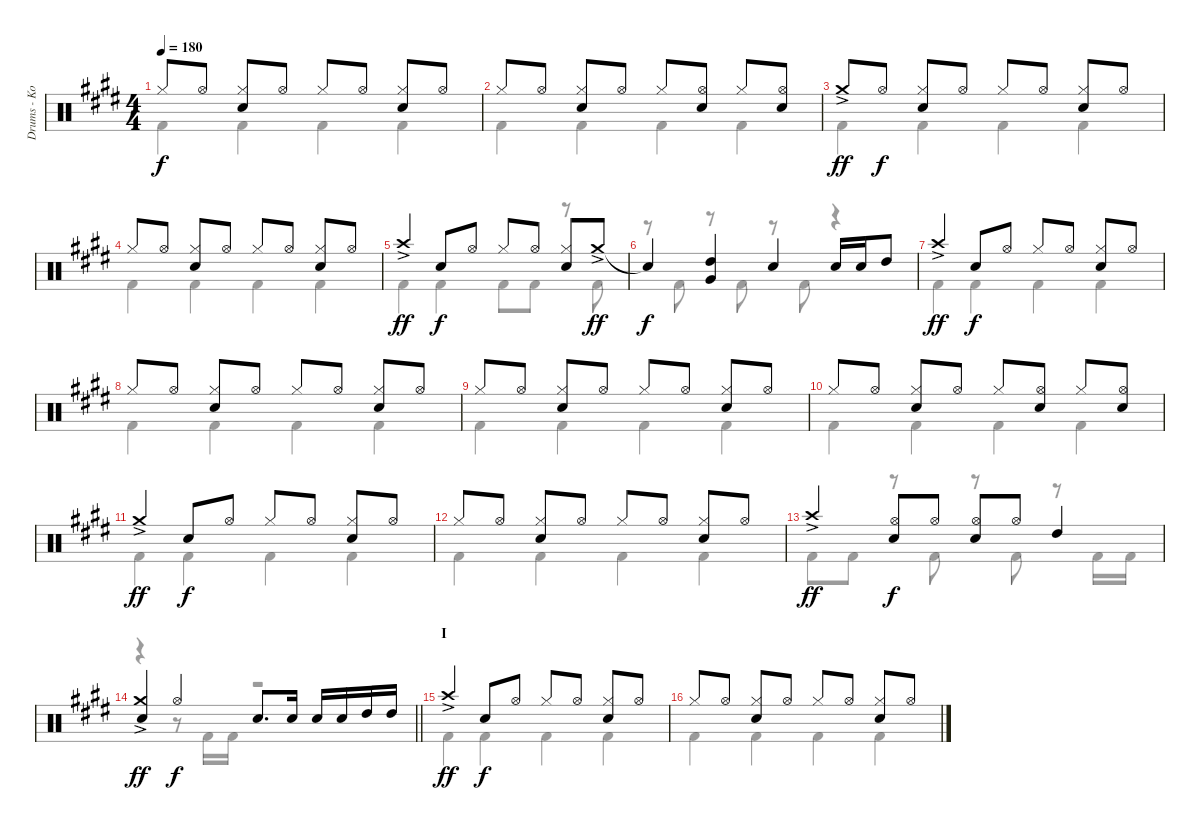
\track ("Drums - Ko-Ki" "Drums - Ko") {instrument percussion}
\staff {score}
\articulation defaults
\voice
\ts (4 4)
\tempo 180
\clef neutral
\ks e "Hi-Hat (closed)".8{dy f} "Hi-Hat (open)".8
("Hi-Hat (closed)" "Snare (hit) 2").8 "Hi-Hat (open)".8 "Hi-Hat (closed)".8 "Hi-Hat (open)".8 ("Hi-Hat (closed)" "Snare (hit) 2").8 "Hi-Hat (open)".8 |
"Hi-Hat (closed)".8 "Hi-Hat (open)".8 ("Hi-Hat (closed)" "Snare (hit) 2").8 "Hi-Hat (open)".8 "Hi-Hat (closed)".8 ("Hi-Hat (open)" "Snare (hit) 2").8 "Hi-Hat (closed)".8 ("Hi-Hat (open)" "Snare (hit) 2").8 |
"Crash medium (hit)"{ac}.8{dy ff} "Hi-Hat (open)".8{dy f} ("Hi-Hat (closed)" "Snare (hit) 2").8 "Hi-Hat (open)".8 "Hi-Hat (closed)".8 "Hi-Hat (open)".8 ("Hi-Hat (closed)" "Snare (hit) 2").8 "Hi-Hat (open)".8 |
"Hi-Hat (closed)".8 "Hi-Hat (open)".8 ("Hi-Hat (closed)" "Snare (hit) 2").8 "Hi-Hat (open)".8 "Hi-Hat (closed)".8 "Hi-Hat (open)".8 ("Hi-Hat (closed)" "Snare (hit) 2").8 "Hi-Hat (open)".8 |
"Crash high (hit)"{ac}.4{dy ff} "Snare (hit) 2".8{dy f} "Hi-Hat (open)".8 "Hi-Hat (closed)".8 "Hi-Hat (open)".8 ("Hi-Hat (closed)" "Snare (hit) 2").8 "Crash medium (hit)"{ac}.8{dy ff} |
"Snare (hit)"{t}.4{dy f} ("High Tom (hit)" "Very Low Tom (hit)").4 "Snare (hit) 2".4 "Snare (hit) 2".16 "Snare (hit) 2".16 "High Tom (hit)".8 |
"Crash high (hit)"{ac}.4{dy ff} "Snare (hit) 2".8{dy f} "Hi-Hat (open)".8 "Hi-Hat (closed)".8 "Hi-Hat (open)".8 ("Hi-Hat (closed)" "Snare (hit) 2").8 "Hi-Hat (open)".8 |
"Hi-Hat (closed)".8 "Hi-Hat (open)".8 ("Hi-Hat (closed)" "Snare (hit) 2").8 "Hi-Hat (open)".8 "Hi-Hat (closed)".8 "Hi-Hat (open)".8 ("Hi-Hat (closed)" "Snare (hit) 2").8 "Hi-Hat (open)".8 |
"Hi-Hat (closed)".8 "Hi-Hat (open)".8 ("Hi-Hat (closed)" "Snare (hit) 2").8 "Hi-Hat (open)".8 "Hi-Hat (closed)".8 "Hi-Hat (open)".8 ("Hi-Hat (closed)" "Snare (hit) 2").8 "Hi-Hat (open)".8 |
"Hi-Hat (closed)".8 "Hi-Hat (open)".8 ("Hi-Hat (closed)" "Snare (hit) 2").8 "Hi-Hat (open)".8 "Hi-Hat (closed)".8 ("Hi-Hat (open)" "Snare (hit) 2").8 "Hi-Hat (closed)".8 ("Hi-Hat (open)" "Snare (hit) 2").8 |
"Crash medium (hit)"{ac}.4{dy ff} "Snare (hit) 2".8{dy f} "Hi-Hat (open)".8 "Hi-Hat (closed)".8 "Hi-Hat (open)".8 ("Hi-Hat (closed)" "Snare (hit) 2").8 "Hi-Hat (open)".8 |
"Hi-Hat (closed)".8 "Hi-Hat (open)".8 ("Hi-Hat (closed)" "Snare (hit) 2").8 "Hi-Hat (open)".8 "Hi-Hat (closed)".8 "Hi-Hat (open)".8 ("Hi-Hat (closed)" "Snare (hit) 2").8 "Hi-Hat (open)".8 |
"Crash high (hit)"{ac}.4{dy ff} ("Hi-Hat (open)" "Snare (hit) 2").8{dy f} "Hi-Hat (open)".8 ("Hi-Hat (open)" "Snare (hit) 2").8 "Hi-Hat (open)".8 "High Tom (hit)".4 |
\barLineRight lightlight
("Crash medium (hit)"{ac} "Snare (hit) 2").4{dy ff} "Hi-Hat (open)".4{dy f} "Snare (hit) 2".8{d} "Snare (hit) 2".16 "Snare (hit) 2".16 "Snare (hit) 2".16 "High Tom (hit)".16 "High Tom (hit)".16 |
\section ("" "I")
"Crash high (hit)"{ac}.4{dy ff} "Snare (hit) 2".8{dy f} "Hi-Hat (open)".8 "Hi-Hat (closed)".8 "Hi-Hat (open)".8 ("Hi-Hat (closed)" "Snare (hit) 2").8 "Hi-Hat (open)".8 |
"Hi-Hat (closed)".8 "Hi-Hat (open)".8 ("Hi-Hat (closed)" "Snare (hit) 2").8 "Hi-Hat (open)".8 "Hi-Hat (closed)".8 "Hi-Hat (open)".8 ("Hi-Hat (closed)" "Snare (hit) 2").8 "Hi-Hat (open)".8
\voice
\clef neutral
\ottava regular
\simile none
\ks e "Kick (hit) 2".4{dy f} "Kick (hit) 2".4 "Kick (hit) 2".4 "Kick (hit) 2".4
|
"Kick (hit) 2".4 "Kick (hit) 2".4 "Kick (hit) 2".4 "Kick (hit) 2".4 |
"Kick (hit) 2".4 "Kick (hit) 2".4 "Kick (hit) 2".4 "Kick (hit) 2".4 |
"Kick (hit) 2".4 "Kick (hit) 2".4 "Kick (hit) 2".4 "Kick (hit) 2".4 |
"Kick (hit) 2".4 "Kick (hit) 2".4 "Kick (hit) 2".8 "Kick (hit) 2".8 r.8 "Kick (hit) 2".8 |
r.8 "Kick (hit) 2".8 r.8 "Kick (hit) 2".8 r.8 "Kick (hit) 2".8 r.4 |
"Kick (hit) 2".4 "Kick (hit) 2".4 "Kick (hit) 2".4 "Kick (hit) 2".4 |
"Kick (hit) 2".4 "Kick (hit) 2".4 "Kick (hit) 2".4 "Kick (hit) 2".4 |
"Kick (hit) 2".4 "Kick (hit) 2".4 "Kick (hit) 2".4 "Kick (hit) 2".4 |
"Kick (hit) 2".4 "Kick (hit) 2".4 "Kick (hit) 2".4 "Kick (hit) 2".4 |
"Kick (hit) 2".4 "Kick (hit) 2".4 "Kick (hit) 2".4 "Kick (hit) 2".4 |
"Kick (hit) 2".4 "Kick (hit) 2".4 "Kick (hit) 2".4 "Kick (hit) 2".4 |
"Kick (hit) 2".8 "Kick (hit) 2".8 r.8 "Kick (hit) 2".8 r.8 "Kick (hit) 2".8 r.8 "Kick (hit) 2".16 "Kick (hit) 2".16 |
\barLineRight lightlight
r.4 r.8 "Kick (hit) 2".16 "Kick (hit) 2".16 r.2 |
"Kick (hit) 2".4 "Kick (hit) 2".4 "Kick (hit) 2".4 "Kick (hit) 2".4 |
"Kick (hit) 2".4 "Kick (hit) 2".4 "Kick (hit) 2".4 "Kick (hit) 2".4
